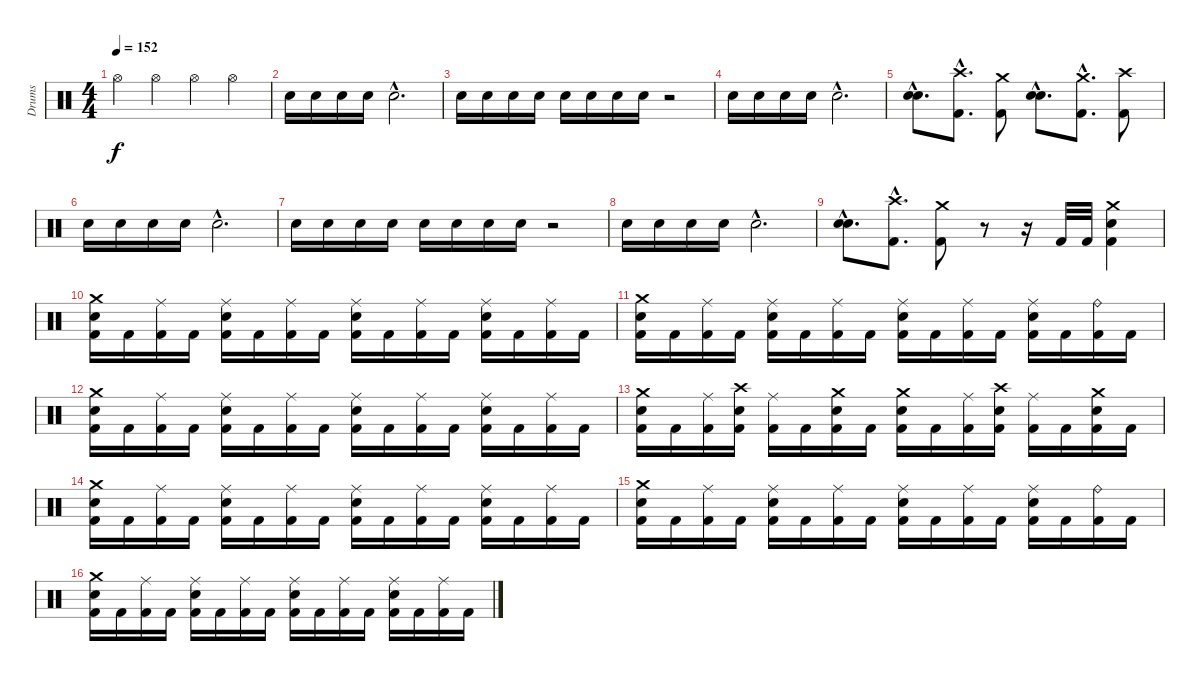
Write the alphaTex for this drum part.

\track ("Drums" "Drums") {instrument percussion}
\staff {score}
\articulation defaults
\ts (4 4)
\tempo 152
\clef neutral
\ks c "Hi-Hat (open)".4{dy f} "Hi-Hat (open)".4 "Hi-Hat (open)".4 "Hi-Hat (open)".4
|
"Snare (hit) 2".16 "Snare (hit) 2".16 "Snare (hit) 2".16 "Snare (hit) 2".16 "Snare (hit) 2"{hac}.2{d} |
"Snare (hit) 2".16 "Snare (hit) 2".16 "Snare (hit) 2".16 "Snare (hit) 2".16 "Snare (hit) 2".16 "Snare (hit) 2".16 "Snare (hit) 2".16 "Snare (hit) 2".16 r.2 |
"Snare (hit) 2".16 "Snare (hit) 2".16 "Snare (hit) 2".16 "Snare (hit) 2".16 "Snare (hit) 2"{hac}.2{d} |
("Snare (hit) 2"{hac} "Snare (hit) 2"{hac}).8{d bu 240} ("Crash high (hit)"{hac} "Kick (hit) 2"{hac}).8{d} ("Crash medium (hit)" "Kick (hit) 2").8 ("Snare (hit) 2"{hac} "Snare (hit) 2"{hac}).8{d bu 240} ("Crash medium (hit)"{hac} "Kick (hit) 2"{hac}).8{d} ("Crash high (hit)" "Kick (hit) 2").8 |
"Snare (hit) 2".16 "Snare (hit) 2".16 "Snare (hit) 2".16 "Snare (hit) 2".16 "Snare (hit) 2"{hac}.2{d} |
"Snare (hit) 2".16 "Snare (hit) 2".16 "Snare (hit) 2".16 "Snare (hit) 2".16 "Snare (hit) 2".16 "Snare (hit) 2".16 "Snare (hit) 2".16 "Snare (hit) 2".16 r.2 |
"Snare (hit) 2".16 "Snare (hit) 2".16 "Snare (hit) 2".16 "Snare (hit) 2".16 "Snare (hit) 2"{hac}.2{d} |
("Snare (hit) 2"{hac} "Snare (hit) 2"{hac}).8{d bu 240} ("Crash high (hit)"{hac} "Kick (hit) 2"{hac}).8{d} ("Crash medium (hit)" "Kick (hit) 2").8 r.8 r.16 "Kick (hit) 2".32 "Kick (hit) 2".32 ("Crash medium (hit)" "Snare (hit) 2" "Kick (hit) 2").4 |
("Crash medium (hit)" "Snare (hit) 2" "Kick (hit) 2").16 "Kick (hit) 2".16 ("Ride (middle)" "Kick (hit) 2").16 "Kick (hit) 2".16 ("Ride (middle)" "Snare (hit) 2" "Kick (hit) 2").16 "Kick (hit) 2".16 ("Ride (middle)" "Kick (hit) 2").16 "Kick (hit) 2".16 ("Ride (middle)" "Snare (hit) 2" "Kick (hit) 2").16 "Kick (hit) 2".16 ("Ride (middle)" "Kick (hit) 2").16 "Kick (hit) 2".16 ("Ride (middle)" "Snare (hit) 2" "Kick (hit) 2").16 "Kick (hit) 2".16 ("Ride (middle)" "Kick (hit) 2").16 "Kick (hit) 2".16 |
("Crash medium (hit)" "Snare (hit) 2" "Kick (hit) 2").16 "Kick (hit) 2".16 ("Ride (middle)" "Kick (hit) 2").16 "Kick (hit) 2".16 ("Ride (middle)" "Snare (hit) 2" "Kick (hit) 2").16 "Kick (hit) 2".16 ("Ride (middle)" "Kick (hit) 2").16 "Kick (hit) 2".16 ("Ride (middle)" "Snare (hit) 2" "Kick (hit) 2").16 "Kick (hit) 2".16 ("Ride (middle)" "Kick (hit) 2").16 "Kick (hit) 2".16 ("Ride (middle)" "Snare (hit) 2" "Kick (hit) 2").16 "Kick (hit) 2".16 ("Ride (bell)" "Kick (hit) 2").16 "Kick (hit) 2".16 |
("Crash medium (hit)" "Snare (hit) 2" "Kick (hit) 2").16 "Kick (hit) 2".16 ("Ride (middle)" "Kick (hit) 2").16 "Kick (hit) 2".16 ("Ride (middle)" "Snare (hit) 2" "Kick (hit) 2").16 "Kick (hit) 2".16 ("Ride (middle)" "Kick (hit) 2").16 "Kick (hit) 2".16 ("Ride (middle)" "Snare (hit) 2" "Kick (hit) 2").16 "Kick (hit) 2".16 ("Ride (middle)" "Kick (hit) 2").16 "Kick (hit) 2".16 ("Ride (middle)" "Snare (hit) 2" "Kick (hit) 2").16 "Kick (hit) 2".16 ("Ride (middle)" "Kick (hit) 2").16 "Kick (hit) 2".16 |
("Crash medium (hit)" "Snare (hit) 2" "Kick (hit) 2").16 "Kick (hit) 2".16 ("Ride (middle)" "Kick (hit) 2").16 ("Crash high (hit)" "Snare (hit) 2" "Kick (hit) 2").16 ("Ride (middle)" "Kick (hit) 2").16 "Kick (hit) 2".16 ("Crash medium (hit)" "Snare (hit) 2" "Kick (hit) 2").16 "Kick (hit) 2".16 ("Crash medium (hit)" "Snare (hit) 2" "Kick (hit) 2").16 "Kick (hit) 2".16 ("Ride (middle)" "Kick (hit) 2").16 ("Crash high (hit)" "Snare (hit) 2" "Kick (hit) 2").16 ("Ride (middle)" "Kick (hit) 2").16 "Kick (hit) 2".16 ("Crash medium (hit)" "Snare (hit) 2" "Kick (hit) 2").16 "Kick (hit) 2".16 |
("Crash medium (hit)" "Snare (hit) 2" "Kick (hit) 2").16 "Kick (hit) 2".16 ("Ride (middle)" "Kick (hit) 2").16 "Kick (hit) 2".16 ("Ride (middle)" "Snare (hit) 2" "Kick (hit) 2").16 "Kick (hit) 2".16 ("Ride (middle)" "Kick (hit) 2").16 "Kick (hit) 2".16 ("Ride (middle)" "Snare (hit) 2" "Kick (hit) 2").16 "Kick (hit) 2".16 ("Ride (middle)" "Kick (hit) 2").16 "Kick (hit) 2".16 ("Ride (middle)" "Snare (hit) 2" "Kick (hit) 2").16 "Kick (hit) 2".16 ("Ride (middle)" "Kick (hit) 2").16 "Kick (hit) 2".16 |
("Crash medium (hit)" "Snare (hit) 2" "Kick (hit) 2").16 "Kick (hit) 2".16 ("Ride (middle)" "Kick (hit) 2").16 "Kick (hit) 2".16 ("Ride (middle)" "Snare (hit) 2" "Kick (hit) 2").16 "Kick (hit) 2".16 ("Ride (middle)" "Kick (hit) 2").16 "Kick (hit) 2".16 ("Ride (middle)" "Snare (hit) 2" "Kick (hit) 2").16 "Kick (hit) 2".16 ("Ride (middle)" "Kick (hit) 2").16 "Kick (hit) 2".16 ("Ride (middle)" "Snare (hit) 2" "Kick (hit) 2").16 "Kick (hit) 2".16 ("Ride (bell)" "Kick (hit) 2").16 "Kick (hit) 2".16 |
("Crash medium (hit)" "Snare (hit) 2" "Kick (hit) 2").16 "Kick (hit) 2".16 ("Ride (middle)" "Kick (hit) 2").16 "Kick (hit) 2".16 ("Ride (middle)" "Snare (hit) 2" "Kick (hit) 2").16 "Kick (hit) 2".16 ("Ride (middle)" "Kick (hit) 2").16 "Kick (hit) 2".16 ("Ride (middle)" "Snare (hit) 2" "Kick (hit) 2").16 "Kick (hit) 2".16 ("Ride (middle)" "Kick (hit) 2").16 "Kick (hit) 2".16 ("Ride (middle)" "Snare (hit) 2" "Kick (hit) 2").16 "Kick (hit) 2".16 ("Ride (middle)" "Kick (hit) 2").16 "Kick (hit) 2".16
